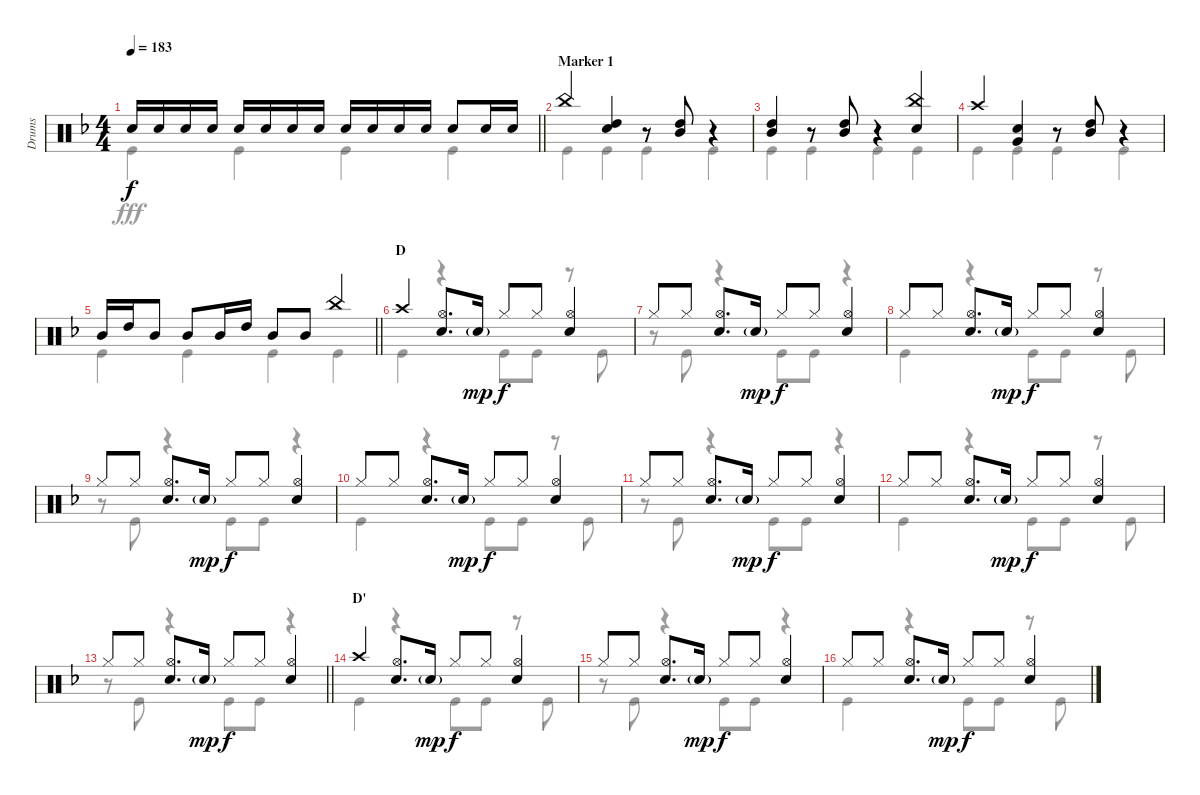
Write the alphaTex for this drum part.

\track ("Drums" "Drums") {instrument percussion}
\staff {score}
\articulation defaults
\voice
\ts (4 4)
\tempo 183
\clef neutral
\barLineRight lightlight
\ks f "Snare (hit) 2".16{dy f} "Snare (hit) 2".16 "Snare (hit) 2".16 "Snare (hit) 2".16 "Snare (hit) 2".16 "Snare (hit) 2".16 "Snare (hit) 2".16 "Snare (hit) 2".16 "Snare (hit) 2".16 "Snare (hit) 2".16 "Snare (hit) 2".16 "Snare (hit) 2".16 "Snare (hit) 2".8 "Snare (hit) 2".16 "Snare (hit) 2".16
|
\section ("" "Marker 1")
"China (hit)".4 ("High Tom (hit)" "Snare (hit) 2").4 r.8 ("High Tom (hit)" "Mid Tom (hit)").8 r.4 |
("High Tom (hit)" "Mid Tom (hit)").4 r.8 ("High Tom (hit)" "Mid Tom (hit)").8 r.4 ("China (hit)" "Snare (hit) 2").4 |
"Crash high (hit)".4 ("Snare (hit) 2" "Very Low Tom (hit)").4 r.8 ("High Tom (hit)" "Mid Tom (hit)").8 r.4 |
\barLineRight lightlight "Mid Tom (hit)".16 "High Tom (hit)".16 "Mid Tom (hit)".8 "Mid Tom (hit)".8 "Mid Tom (hit)".16 "High Tom (hit)".16 "Mid Tom (hit)".8 "Mid Tom (hit)".8 "China (hit)".4
|
\section ("" "D")
"Crash high (hit)".4 ("Hi-Hat (open)" "Snare (hit) 2").8{d} "Snare (hit) 2"{g}.16{dy mp} "Hi-Hat (closed)".8{dy f} "Hi-Hat (closed)".8 ("Hi-Hat (open)" "Snare (hit) 2").4 |
"Hi-Hat (closed)".8 "Hi-Hat (closed)".8 ("Hi-Hat (open)" "Snare (hit) 2").8{d} "Snare (hit) 2"{g}.16{dy mp} "Hi-Hat (closed)".8{dy f} "Hi-Hat (closed)".8 ("Hi-Hat (open)" "Snare (hit) 2").4 |
"Hi-Hat (closed)".8 "Hi-Hat (closed)".8 ("Hi-Hat (open)" "Snare (hit) 2").8{d} "Snare (hit) 2"{g}.16{dy mp} "Hi-Hat (closed)".8{dy f} "Hi-Hat (closed)".8 ("Hi-Hat (open)" "Snare (hit) 2").4 |
"Hi-Hat (closed)".8 "Hi-Hat (closed)".8 ("Hi-Hat (open)" "Snare (hit) 2").8{d} "Snare (hit) 2"{g}.16{dy mp} "Hi-Hat (closed)".8{dy f} "Hi-Hat (closed)".8 ("Hi-Hat (open)" "Snare (hit) 2").4 |
"Hi-Hat (closed)".8 "Hi-Hat (closed)".8 ("Hi-Hat (open)" "Snare (hit) 2").8{d} "Snare (hit) 2"{g}.16{dy mp} "Hi-Hat (closed)".8{dy f} "Hi-Hat (closed)".8 ("Hi-Hat (open)" "Snare (hit) 2").4 |
"Hi-Hat (closed)".8 "Hi-Hat (closed)".8 ("Hi-Hat (open)" "Snare (hit) 2").8{d} "Snare (hit) 2"{g}.16{dy mp} "Hi-Hat (closed)".8{dy f} "Hi-Hat (closed)".8 ("Hi-Hat (open)" "Snare (hit) 2").4 |
"Hi-Hat (closed)".8 "Hi-Hat (closed)".8 ("Hi-Hat (open)" "Snare (hit) 2").8{d} "Snare (hit) 2"{g}.16{dy mp} "Hi-Hat (closed)".8{dy f} "Hi-Hat (closed)".8 ("Hi-Hat (open)" "Snare (hit) 2").4 |
\barLineRight lightlight "Hi-Hat (closed)".8 "Hi-Hat (closed)".8
("Hi-Hat (open)" "Snare (hit) 2").8{d} "Snare (hit) 2"{g}.16{dy mp} "Hi-Hat (closed)".8{dy f} "Hi-Hat (closed)".8 ("Hi-Hat (open)" "Snare (hit) 2").4 |
\section ("" "D'")
"Crash high (hit)".4 ("Hi-Hat (open)" "Snare (hit) 2").8{d} "Snare (hit) 2"{g}.16{dy mp} "Hi-Hat (closed)".8{dy f} "Hi-Hat (closed)".8 ("Hi-Hat (open)" "Snare (hit) 2").4 |
"Hi-Hat (closed)".8 "Hi-Hat (closed)".8 ("Hi-Hat (open)" "Snare (hit) 2").8{d} "Snare (hit) 2"{g}.16{dy mp} "Hi-Hat (closed)".8{dy f} "Hi-Hat (closed)".8 ("Hi-Hat (open)" "Snare (hit) 2").4 |
"Hi-Hat (closed)".8 "Hi-Hat (closed)".8 ("Hi-Hat (open)" "Snare (hit) 2").8{d} "Snare (hit) 2"{g}.16{dy mp} "Hi-Hat (closed)".8{dy f} "Hi-Hat (closed)".8 ("Hi-Hat (open)" "Snare (hit) 2").4
\voice
\clef neutral
\ottava regular
\simile none
\barLineRight lightlight
\ks f "Kick (hit)".4{dy fff} "Kick (hit)".4 "Kick (hit)".4 "Kick (hit)".4
|
"Kick (hit)".4 "Kick (hit)".4 "Kick (hit)".4 "Kick (hit)".4 |
"Kick (hit)".4 "Kick (hit)".4 "Kick (hit)".4 "Kick (hit)".4 |
"Kick (hit)".4 "Kick (hit)".4 "Kick (hit)".4 "Kick (hit)".4 |
\barLineRight lightlight "Kick (hit)".4 "Kick (hit)".4 "Kick (hit)".4 "Kick (hit)".4
|
"Kick (hit)".4 r.4 "Kick (hit)".8 "Kick (hit)".8 r.8 "Kick (hit)".8 |
r.8 "Kick (hit)".8 r.4 "Kick (hit)".8 "Kick (hit)".8 r.4 |
"Kick (hit)".4 r.4 "Kick (hit)".8 "Kick (hit)".8 r.8 "Kick (hit)".8 |
r.8 "Kick (hit)".8 r.4 "Kick (hit)".8 "Kick (hit)".8 r.4 |
"Kick (hit)".4 r.4 "Kick (hit)".8 "Kick (hit)".8 r.8 "Kick (hit)".8 |
r.8 "Kick (hit)".8 r.4 "Kick (hit)".8 "Kick (hit)".8 r.4 |
"Kick (hit)".4 r.4 "Kick (hit)".8 "Kick (hit)".8 r.8 "Kick (hit)".8 |
\barLineRight lightlight
r.8 "Kick (hit)".8 r.4 "Kick (hit)".8 "Kick (hit)".8 r.4 |
"Kick (hit)".4 r.4 "Kick (hit)".8 "Kick (hit)".8 r.8 "Kick (hit)".8 |
r.8 "Kick (hit)".8 r.4 "Kick (hit)".8 "Kick (hit)".8 r.4 |
"Kick (hit)".4 r.4 "Kick (hit)".8 "Kick (hit)".8 r.8 "Kick (hit)".8
